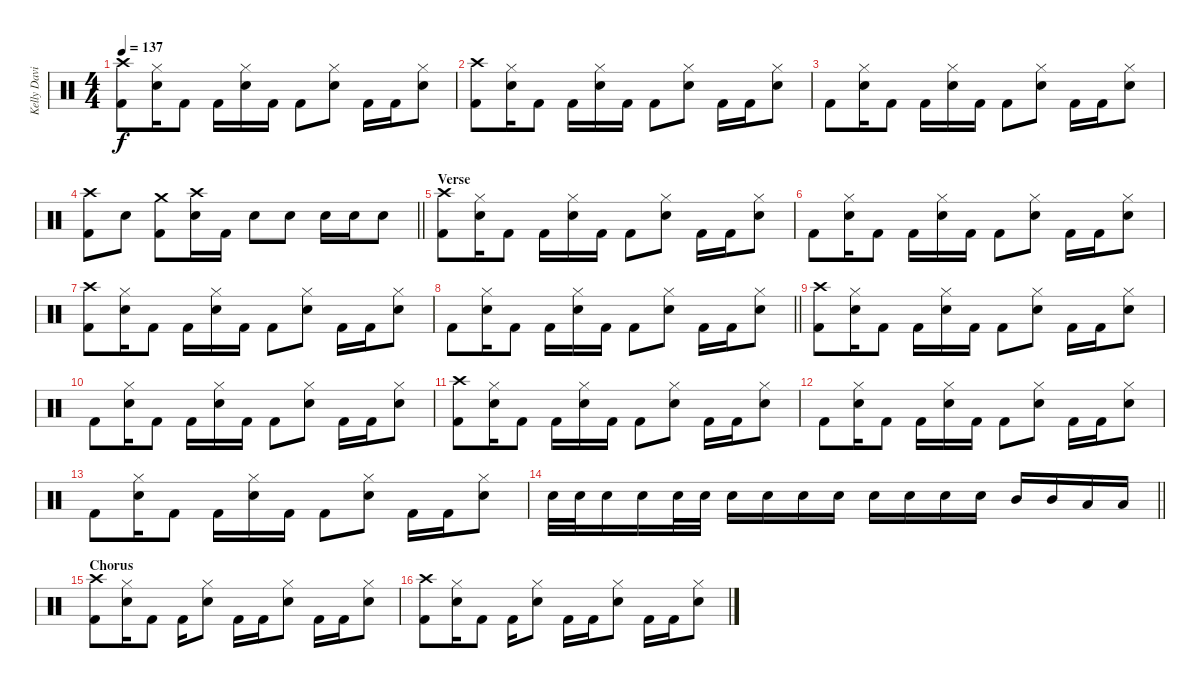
\track ("Kelly David Smith" "Kelly Davi") {instrument percussion}
\staff {score}
\articulation defaults
\ts (4 4)
\tempo 137
\clef neutral
\ks c
("Crash high (hit)" "Kick (hit) 2").8{dy f} ("Hi-Hat (closed)" "Snare (hit) 2").16 "Kick (hit) 2".8 "Kick (hit) 2".16 ("Hi-Hat (closed)" "Snare (hit) 2").16 "Kick (hit) 2".16 "Kick (hit) 2".8 ("Hi-Hat (closed)" "Snare (hit) 2").8 "Kick (hit) 2".16 "Kick (hit) 2".16 ("Hi-Hat (closed)" "Snare (hit) 2").8 |
("Crash high (hit)" "Kick (hit) 2").8 ("Hi-Hat (closed)" "Snare (hit) 2").16 "Kick (hit) 2".8 "Kick (hit) 2".16 ("Hi-Hat (closed)" "Snare (hit) 2").16 "Kick (hit) 2".16 "Kick (hit) 2".8 ("Hi-Hat (closed)" "Snare (hit) 2").8 "Kick (hit) 2".16 "Kick (hit) 2".16 ("Hi-Hat (closed)" "Snare (hit) 2").8 |
"Kick (hit) 2".8 ("Hi-Hat (closed)" "Snare (hit) 2").16 "Kick (hit) 2".8 "Kick (hit) 2".16 ("Hi-Hat (closed)" "Snare (hit) 2").16 "Kick (hit) 2".16 "Kick (hit) 2".8 ("Hi-Hat (closed)" "Snare (hit) 2").8 "Kick (hit) 2".16 "Kick (hit) 2".16 ("Hi-Hat (closed)" "Snare (hit) 2").8 |
\barLineRight lightlight
("Crash high (hit)" "Kick (hit) 2").8 "Snare (hit) 2".8 ("Crash medium (hit)" "Kick (hit) 2").8 ("Crash high (hit)" "Snare (hit) 2").16 "Kick (hit) 2".16 "Snare (hit) 2".8 "Snare (hit) 2".8 "Snare (hit) 2".16 "Snare (hit) 2".16 "Snare (hit) 2".8 |
\section ("" "Verse")
("Crash high (hit)" "Kick (hit) 2").8 ("Hi-Hat (closed)" "Snare (hit) 2").16 "Kick (hit) 2".8 "Kick (hit) 2".16 ("Hi-Hat (closed)" "Snare (hit) 2").16 "Kick (hit) 2".16 "Kick (hit) 2".8 ("Hi-Hat (closed)" "Snare (hit) 2").8 "Kick (hit) 2".16 "Kick (hit) 2".16 ("Hi-Hat (closed)" "Snare (hit) 2").8 |
"Kick (hit) 2".8 ("Hi-Hat (closed)" "Snare (hit) 2").16 "Kick (hit) 2".8 "Kick (hit) 2".16 ("Hi-Hat (closed)" "Snare (hit) 2").16 "Kick (hit) 2".16 "Kick (hit) 2".8 ("Hi-Hat (closed)" "Snare (hit) 2").8 "Kick (hit) 2".16 "Kick (hit) 2".16 ("Hi-Hat (closed)" "Snare (hit) 2").8 |
("Crash high (hit)" "Kick (hit) 2").8 ("Hi-Hat (closed)" "Snare (hit) 2").16 "Kick (hit) 2".8 "Kick (hit) 2".16 ("Hi-Hat (closed)" "Snare (hit) 2").16 "Kick (hit) 2".16 "Kick (hit) 2".8 ("Hi-Hat (closed)" "Snare (hit) 2").8 "Kick (hit) 2".16 "Kick (hit) 2".16 ("Hi-Hat (closed)" "Snare (hit) 2").8 |
\barLineRight lightlight "Kick (hit) 2".8
("Hi-Hat (closed)" "Snare (hit) 2").16 "Kick (hit) 2".8 "Kick (hit) 2".16 ("Hi-Hat (closed)" "Snare (hit) 2").16 "Kick (hit) 2".16 "Kick (hit) 2".8 ("Hi-Hat (closed)" "Snare (hit) 2").8 "Kick (hit) 2".16 "Kick (hit) 2".16 ("Hi-Hat (closed)" "Snare (hit) 2").8 |
("Crash high (hit)" "Kick (hit) 2").8 ("Hi-Hat (closed)" "Snare (hit) 2").16 "Kick (hit) 2".8 "Kick (hit) 2".16 ("Hi-Hat (closed)" "Snare (hit) 2").16 "Kick (hit) 2".16 "Kick (hit) 2".8 ("Hi-Hat (closed)" "Snare (hit) 2").8 "Kick (hit) 2".16 "Kick (hit) 2".16 ("Hi-Hat (closed)" "Snare (hit) 2").8 |
"Kick (hit) 2".8 ("Hi-Hat (closed)" "Snare (hit) 2").16 "Kick (hit) 2".8 "Kick (hit) 2".16 ("Hi-Hat (closed)" "Snare (hit) 2").16 "Kick (hit) 2".16 "Kick (hit) 2".8 ("Hi-Hat (closed)" "Snare (hit) 2").8 "Kick (hit) 2".16 "Kick (hit) 2".16 ("Hi-Hat (closed)" "Snare (hit) 2").8 |
("Crash high (hit)" "Kick (hit) 2").8 ("Hi-Hat (closed)" "Snare (hit) 2").16 "Kick (hit) 2".8 "Kick (hit) 2".16 ("Hi-Hat (closed)" "Snare (hit) 2").16 "Kick (hit) 2".16 "Kick (hit) 2".8 ("Hi-Hat (closed)" "Snare (hit) 2").8 "Kick (hit) 2".16 "Kick (hit) 2".16 ("Hi-Hat (closed)" "Snare (hit) 2").8 |
"Kick (hit) 2".8 ("Hi-Hat (closed)" "Snare (hit) 2").16 "Kick (hit) 2".8 "Kick (hit) 2".16 ("Hi-Hat (closed)" "Snare (hit) 2").16 "Kick (hit) 2".16 "Kick (hit) 2".8 ("Hi-Hat (closed)" "Snare (hit) 2").8 "Kick (hit) 2".16 "Kick (hit) 2".16 ("Hi-Hat (closed)" "Snare (hit) 2").8 |
"Kick (hit) 2".8 ("Hi-Hat (closed)" "Snare (hit) 2").16 "Kick (hit) 2".8 "Kick (hit) 2".16 ("Hi-Hat (closed)" "Snare (hit) 2").16 "Kick (hit) 2".16 "Kick (hit) 2".8 ("Hi-Hat (closed)" "Snare (hit) 2").8 "Kick (hit) 2".16 "Kick (hit) 2".16 ("Hi-Hat (closed)" "Snare (hit) 2").8 |
\barLineRight lightlight "Snare (hit) 2".32 "Snare (hit) 2".32 "Snare (hit) 2".16 "Snare (hit) 2".16 "Snare (hit) 2".32 "Snare (hit) 2".32 "Snare (hit) 2".16 "Snare (hit) 2".16 "Snare (hit) 2".16 "Snare (hit) 2".16 "Snare (hit) 2".16 "Snare (hit) 2".16 "Snare (hit) 2".16 "Snare (hit) 2".16 "Mid Tom (hit)".16 "Mid Tom (hit)".16 "Low Tom (hit)".16 "Low Tom (hit)".16
|
\section ("" "Chorus")
("Crash high (hit)" "Kick (hit) 2").8 ("Hi-Hat (closed)" "Snare (hit) 2").16 "Kick (hit) 2".8 "Kick (hit) 2".16 ("Hi-Hat (closed)" "Snare (hit) 2").8 "Kick (hit) 2".16 "Kick (hit) 2".16 ("Hi-Hat (closed)" "Snare (hit) 2").8 "Kick (hit) 2".16 "Kick (hit) 2".16 ("Hi-Hat (closed)" "Snare (hit) 2").8 |
("Crash high (hit)" "Kick (hit) 2").8 ("Hi-Hat (closed)" "Snare (hit) 2").16 "Kick (hit) 2".8 "Kick (hit) 2".16 ("Hi-Hat (closed)" "Snare (hit) 2").8 "Kick (hit) 2".16 "Kick (hit) 2".16 ("Hi-Hat (closed)" "Snare (hit) 2").8 "Kick (hit) 2".16 "Kick (hit) 2".16 ("Hi-Hat (closed)" "Snare (hit) 2").8
